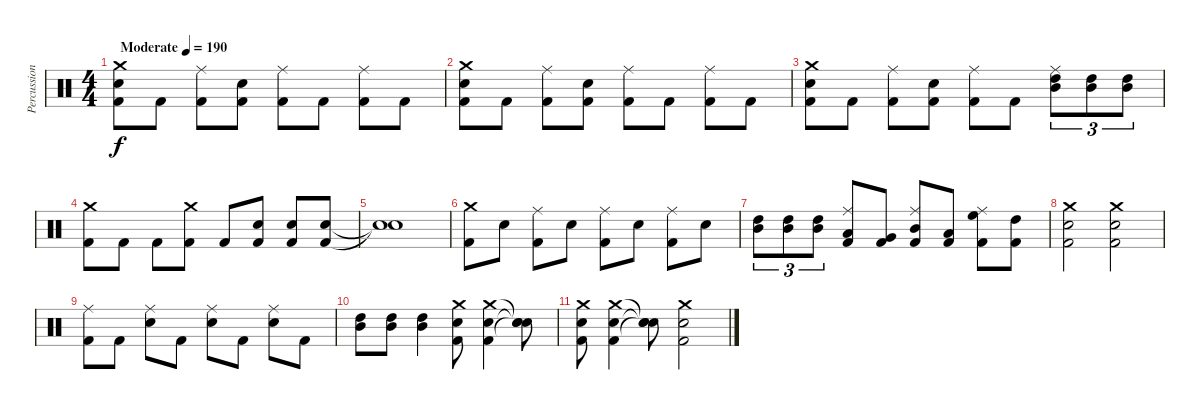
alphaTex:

\track ("Percussion" "Percussion") {instrument percussion}
\staff {score}
\articulation defaults
\ts (4 4)
\tempo (190 "Moderate")
\clef neutral
\ks c
("Crash medium (hit)" "Electric Snare (hit)" "Kick (hit) 2").8{dy f} "Kick (hit) 2".8 ("Ride (middle)" "Kick (hit) 2").8 ("Electric Snare (hit)" "Kick (hit) 2").8 ("Ride (middle)" "Kick (hit) 2").8 "Kick (hit) 2".8 ("Ride (middle)" "Kick (hit) 2").8 "Kick (hit) 2".8 |
("Crash medium (hit)" "Electric Snare (hit)" "Kick (hit) 2").8 "Kick (hit) 2".8 ("Ride (middle)" "Kick (hit) 2").8 ("Electric Snare (hit)" "Kick (hit) 2").8 ("Ride (middle)" "Kick (hit) 2").8 "Kick (hit) 2".8 ("Ride (middle)" "Kick (hit) 2").8 "Kick (hit) 2".8 |
("Crash medium (hit)" "Electric Snare (hit)" "Kick (hit) 2").8 "Kick (hit) 2".8 ("Ride (middle)" "Kick (hit) 2").8 ("Electric Snare (hit)" "Kick (hit) 2").8 ("Ride (middle)" "Kick (hit) 2").8 "Kick (hit) 2".8 ("Ride (middle)" "Mid Tom (hit)" "High Tom (hit)").8{tu (3 2)} ("Mid Tom (hit)" "High Tom (hit)").8{tu (3 2)} ("Mid Tom (hit)" "High Tom (hit)").8{tu (3 2)} |
("Crash medium (hit)" "Kick (hit) 2").8 "Kick (hit) 2".8 "Kick (hit) 2".8 ("Crash medium (hit)" "Kick (hit) 2").8 "Kick (hit) 2".8 ("Electric Snare (hit)" "Kick (hit) 2").8 ("Electric Snare (hit)" "Kick (hit) 2").8 ("Electric Snare (hit)" "Kick (hit) 2").8 |
("Snare (hit)"{t} "Snare (hit)"{t}).1 |
("Crash medium (hit)" "Kick (hit) 2").8 "Electric Snare (hit)".8 ("Ride (middle)" "Kick (hit) 2").8 "Electric Snare (hit)".8 ("Ride (middle)" "Kick (hit) 2").8 "Electric Snare (hit)".8 ("Ride (middle)" "Kick (hit) 2").8 "Electric Snare (hit)".8 |
("Mid Tom (hit)" "High Tom (hit)").8{tu (3 2)} ("Mid Tom (hit)" "High Tom (hit)").8{tu (3 2)} ("Mid Tom (hit)" "High Tom (hit)").8{tu (3 2)} ("Ride (middle)" "Low Floor Tom (hit)" "Kick (hit) 2").8 ("Very Low Tom (hit)" "Kick (hit) 2").8 ("Ride (middle)" "Mid Tom (hit)" "Kick (hit) 2").8 ("Low Tom (hit)" "Kick (hit) 2").8 ("Ride (middle)" "High Floor Tom (hit)" "Kick (hit) 2").8 ("High Tom (hit)" "Kick (hit) 2").8 |
("Crash medium (hit)" "Electric Snare (hit)" "Kick (hit) 2").2 ("Crash medium (hit)" "Electric Snare (hit)" "Kick (hit) 2").2 |
("Ride (middle)" "Kick (hit) 2").8 "Kick (hit) 2".8 ("Ride (middle)" "Electric Snare (hit)").8 "Kick (hit) 2".8 ("Ride (middle)" "Electric Snare (hit)").8 "Kick (hit) 2".8 ("Ride (middle)" "Electric Snare (hit)").8 "Kick (hit) 2".8 |
("Mid Tom (hit)" "High Tom (hit)").8 ("Mid Tom (hit)" "High Tom (hit)").8 ("Mid Tom (hit)" "High Tom (hit)").4 ("Crash medium (hit)" "Electric Snare (hit)" "Kick (hit) 2").8 ("Crash medium (hit)" "Electric Snare (hit)" "Kick (hit) 2").4 ("Snare (hit)"{t} "Snare (hit)"{t} "Snare (hit)"{t}).8 |
("Crash medium (hit)" "Electric Snare (hit)" "Kick (hit) 2").8 ("Crash medium (hit)" "Electric Snare (hit)" "Kick (hit) 2").4 ("Snare (hit)"{t} "Snare (hit)"{t} "Snare (hit)"{t}).8 ("Crash medium (hit)" "Electric Snare (hit)" "Kick (hit) 2").2
